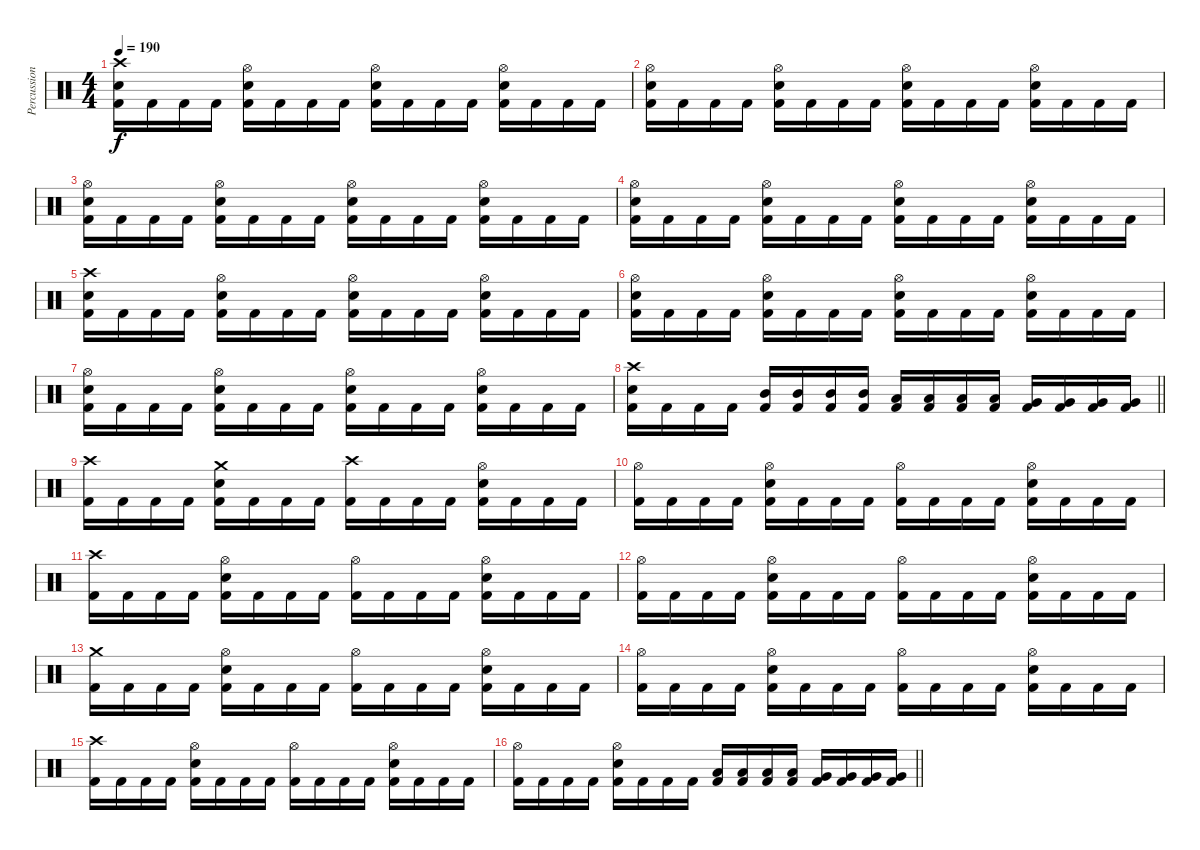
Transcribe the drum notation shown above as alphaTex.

\track ("Percussion" "Percussion") {instrument percussion}
\staff {score}
\articulation defaults
\ts (4 4)
\tempo 190
\clef neutral
\ks c
("Crash high (hit)" "Snare (hit) 2" "Kick (hit) 2").16{dy f} "Kick (hit) 2".16 "Kick (hit) 2".16 "Kick (hit) 2".16 ("Hi-Hat (open)" "Snare (hit) 2" "Kick (hit) 2").16 "Kick (hit) 2".16 "Kick (hit) 2".16 "Kick (hit) 2".16 ("Hi-Hat (open)" "Snare (hit) 2" "Kick (hit) 2").16 "Kick (hit) 2".16 "Kick (hit) 2".16 "Kick (hit) 2".16 ("Hi-Hat (open)" "Snare (hit) 2" "Kick (hit) 2").16 "Kick (hit) 2".16 "Kick (hit) 2".16 "Kick (hit) 2".16 |
("Hi-Hat (open)" "Snare (hit) 2" "Kick (hit) 2").16 "Kick (hit) 2".16 "Kick (hit) 2".16 "Kick (hit) 2".16 ("Hi-Hat (open)" "Snare (hit) 2" "Kick (hit) 2").16 "Kick (hit) 2".16 "Kick (hit) 2".16 "Kick (hit) 2".16 ("Hi-Hat (open)" "Snare (hit) 2" "Kick (hit) 2").16 "Kick (hit) 2".16 "Kick (hit) 2".16 "Kick (hit) 2".16 ("Hi-Hat (open)" "Snare (hit) 2" "Kick (hit) 2").16 "Kick (hit) 2".16 "Kick (hit) 2".16 "Kick (hit) 2".16 |
("Hi-Hat (open)" "Snare (hit) 2" "Kick (hit) 2").16 "Kick (hit) 2".16 "Kick (hit) 2".16 "Kick (hit) 2".16 ("Hi-Hat (open)" "Snare (hit) 2" "Kick (hit) 2").16 "Kick (hit) 2".16 "Kick (hit) 2".16 "Kick (hit) 2".16 ("Hi-Hat (open)" "Snare (hit) 2" "Kick (hit) 2").16 "Kick (hit) 2".16 "Kick (hit) 2".16 "Kick (hit) 2".16 ("Hi-Hat (open)" "Snare (hit) 2" "Kick (hit) 2").16 "Kick (hit) 2".16 "Kick (hit) 2".16 "Kick (hit) 2".16 |
("Hi-Hat (open)" "Snare (hit) 2" "Kick (hit) 2").16 "Kick (hit) 2".16 "Kick (hit) 2".16 "Kick (hit) 2".16 ("Hi-Hat (open)" "Snare (hit) 2" "Kick (hit) 2").16 "Kick (hit) 2".16 "Kick (hit) 2".16 "Kick (hit) 2".16 ("Hi-Hat (open)" "Snare (hit) 2" "Kick (hit) 2").16 "Kick (hit) 2".16 "Kick (hit) 2".16 "Kick (hit) 2".16 ("Hi-Hat (open)" "Snare (hit) 2" "Kick (hit) 2").16 "Kick (hit) 2".16 "Kick (hit) 2".16 "Kick (hit) 2".16 |
("Crash high (hit)" "Snare (hit) 2" "Kick (hit) 2").16 "Kick (hit) 2".16 "Kick (hit) 2".16 "Kick (hit) 2".16 ("Hi-Hat (open)" "Snare (hit) 2" "Kick (hit) 2").16 "Kick (hit) 2".16 "Kick (hit) 2".16 "Kick (hit) 2".16 ("Hi-Hat (open)" "Snare (hit) 2" "Kick (hit) 2").16 "Kick (hit) 2".16 "Kick (hit) 2".16 "Kick (hit) 2".16 ("Hi-Hat (open)" "Snare (hit) 2" "Kick (hit) 2").16 "Kick (hit) 2".16 "Kick (hit) 2".16 "Kick (hit) 2".16 |
("Hi-Hat (open)" "Snare (hit) 2" "Kick (hit) 2").16 "Kick (hit) 2".16 "Kick (hit) 2".16 "Kick (hit) 2".16 ("Hi-Hat (open)" "Snare (hit) 2" "Kick (hit) 2").16 "Kick (hit) 2".16 "Kick (hit) 2".16 "Kick (hit) 2".16 ("Hi-Hat (open)" "Snare (hit) 2" "Kick (hit) 2").16 "Kick (hit) 2".16 "Kick (hit) 2".16 "Kick (hit) 2".16 ("Hi-Hat (open)" "Snare (hit) 2" "Kick (hit) 2").16 "Kick (hit) 2".16 "Kick (hit) 2".16 "Kick (hit) 2".16 |
("Hi-Hat (open)" "Snare (hit) 2" "Kick (hit) 2").16 "Kick (hit) 2".16 "Kick (hit) 2".16 "Kick (hit) 2".16 ("Hi-Hat (open)" "Snare (hit) 2" "Kick (hit) 2").16 "Kick (hit) 2".16 "Kick (hit) 2".16 "Kick (hit) 2".16 ("Hi-Hat (open)" "Snare (hit) 2" "Kick (hit) 2").16 "Kick (hit) 2".16 "Kick (hit) 2".16 "Kick (hit) 2".16 ("Hi-Hat (open)" "Snare (hit) 2" "Kick (hit) 2").16 "Kick (hit) 2".16 "Kick (hit) 2".16 "Kick (hit) 2".16 |
\barLineRight lightlight
("Crash high (hit)" "Snare (hit) 2" "Kick (hit) 2").16 "Kick (hit) 2".16 "Kick (hit) 2".16 "Kick (hit) 2".16 ("Mid Tom (hit)" "Kick (hit) 2").16 ("Mid Tom (hit)" "Kick (hit) 2").16 ("Mid Tom (hit)" "Kick (hit) 2").16 ("Mid Tom (hit)" "Kick (hit) 2").16 ("Low Tom (hit)" "Kick (hit) 2").16 ("Low Tom (hit)" "Kick (hit) 2").16 ("Low Tom (hit)" "Kick (hit) 2").16 ("Low Tom (hit)" "Kick (hit) 2").16 ("Very Low Tom (hit)" "Kick (hit) 2").16 ("Very Low Tom (hit)" "Kick (hit) 2").16 ("Very Low Tom (hit)" "Kick (hit) 2").16 ("Very Low Tom (hit)" "Kick (hit) 2").16 |
("Crash high (hit)" "Kick (hit) 2").16 "Kick (hit) 2".16 "Kick (hit) 2".16 "Kick (hit) 2".16 ("Crash medium (hit)" "Snare (hit) 2" "Kick (hit) 2").16 "Kick (hit) 2".16 "Kick (hit) 2".16 "Kick (hit) 2".16 ("Crash high (hit)" "Kick (hit) 2").16 "Kick (hit) 2".16 "Kick (hit) 2".16 "Kick (hit) 2".16 ("Hi-Hat (open)" "Snare (hit) 2" "Kick (hit) 2").16 "Kick (hit) 2".16 "Kick (hit) 2".16 "Kick (hit) 2".16 |
("Hi-Hat (open)" "Kick (hit) 2").16 "Kick (hit) 2".16 "Kick (hit) 2".16 "Kick (hit) 2".16 ("Hi-Hat (open)" "Snare (hit) 2" "Kick (hit) 2").16 "Kick (hit) 2".16 "Kick (hit) 2".16 "Kick (hit) 2".16 ("Hi-Hat (open)" "Kick (hit) 2").16 "Kick (hit) 2".16 "Kick (hit) 2".16 "Kick (hit) 2".16 ("Hi-Hat (open)" "Snare (hit) 2" "Kick (hit) 2").16 "Kick (hit) 2".16 "Kick (hit) 2".16 "Kick (hit) 2".16 |
("Crash high (hit)" "Kick (hit) 2").16 "Kick (hit) 2".16 "Kick (hit) 2".16 "Kick (hit) 2".16 ("Hi-Hat (open)" "Snare (hit) 2" "Kick (hit) 2").16 "Kick (hit) 2".16 "Kick (hit) 2".16 "Kick (hit) 2".16 ("Hi-Hat (open)" "Kick (hit) 2").16 "Kick (hit) 2".16 "Kick (hit) 2".16 "Kick (hit) 2".16 ("Hi-Hat (open)" "Snare (hit) 2" "Kick (hit) 2").16 "Kick (hit) 2".16 "Kick (hit) 2".16 "Kick (hit) 2".16 |
("Hi-Hat (open)" "Kick (hit) 2").16 "Kick (hit) 2".16 "Kick (hit) 2".16 "Kick (hit) 2".16 ("Hi-Hat (open)" "Snare (hit) 2" "Kick (hit) 2").16 "Kick (hit) 2".16 "Kick (hit) 2".16 "Kick (hit) 2".16 ("Hi-Hat (open)" "Kick (hit) 2").16 "Kick (hit) 2".16 "Kick (hit) 2".16 "Kick (hit) 2".16 ("Hi-Hat (open)" "Snare (hit) 2" "Kick (hit) 2").16 "Kick (hit) 2".16 "Kick (hit) 2".16 "Kick (hit) 2".16 |
("Crash medium (hit)" "Kick (hit) 2").16 "Kick (hit) 2".16 "Kick (hit) 2".16 "Kick (hit) 2".16 ("Hi-Hat (open)" "Snare (hit) 2" "Kick (hit) 2").16 "Kick (hit) 2".16 "Kick (hit) 2".16 "Kick (hit) 2".16 ("Hi-Hat (open)" "Kick (hit) 2").16 "Kick (hit) 2".16 "Kick (hit) 2".16 "Kick (hit) 2".16 ("Hi-Hat (open)" "Snare (hit) 2" "Kick (hit) 2").16 "Kick (hit) 2".16 "Kick (hit) 2".16 "Kick (hit) 2".16 |
("Hi-Hat (open)" "Kick (hit) 2").16 "Kick (hit) 2".16 "Kick (hit) 2".16 "Kick (hit) 2".16 ("Hi-Hat (open)" "Snare (hit) 2" "Kick (hit) 2").16 "Kick (hit) 2".16 "Kick (hit) 2".16 "Kick (hit) 2".16 ("Hi-Hat (open)" "Kick (hit) 2").16 "Kick (hit) 2".16 "Kick (hit) 2".16 "Kick (hit) 2".16 ("Hi-Hat (open)" "Snare (hit) 2" "Kick (hit) 2").16 "Kick (hit) 2".16 "Kick (hit) 2".16 "Kick (hit) 2".16 |
("Crash high (hit)" "Kick (hit) 2").16 "Kick (hit) 2".16 "Kick (hit) 2".16 "Kick (hit) 2".16 ("Hi-Hat (open)" "Snare (hit) 2" "Kick (hit) 2").16 "Kick (hit) 2".16 "Kick (hit) 2".16 "Kick (hit) 2".16 ("Hi-Hat (open)" "Kick (hit) 2").16 "Kick (hit) 2".16 "Kick (hit) 2".16 "Kick (hit) 2".16 ("Hi-Hat (open)" "Snare (hit) 2" "Kick (hit) 2").16 "Kick (hit) 2".16 "Kick (hit) 2".16 "Kick (hit) 2".16 |
\barLineRight lightlight
("Hi-Hat (open)" "Kick (hit) 2").16 "Kick (hit) 2".16 "Kick (hit) 2".16 "Kick (hit) 2".16 ("Hi-Hat (open)" "Snare (hit) 2" "Kick (hit) 2").16 "Kick (hit) 2".16 "Kick (hit) 2".16 "Kick (hit) 2".16 ("Low Tom (hit)" "Kick (hit) 2").16 ("Low Tom (hit)" "Kick (hit) 2").16 ("Low Tom (hit)" "Kick (hit) 2").16 ("Low Tom (hit)" "Kick (hit) 2").16 ("Very Low Tom (hit)" "Kick (hit) 2").16 ("Very Low Tom (hit)" "Kick (hit) 2").16 ("Very Low Tom (hit)" "Kick (hit) 2").16 ("Very Low Tom (hit)" "Kick (hit) 2").16
